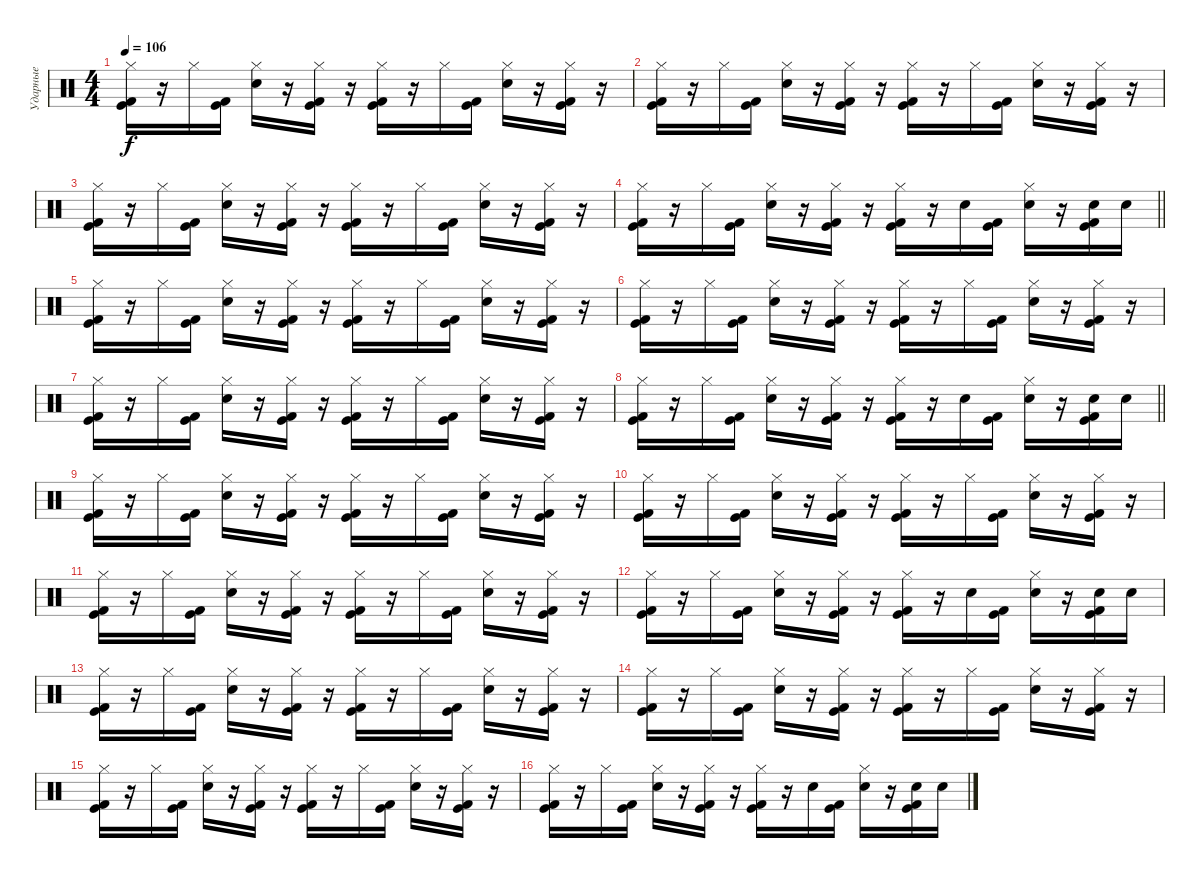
\track ("Ударные" "Ударные") {instrument percussion}
\staff {score}
\articulation defaults
\ts (4 4)
\tempo 106
\clef neutral
\ks c
("Hi-Hat (closed)" "Kick (hit) 2" "Kick (hit)").16{dy f} r.16 "Hi-Hat (closed)".16 ("Kick (hit) 2" "Kick (hit)").16 ("Hi-Hat (closed)" "Electric Snare (hit)").16 r.16 ("Hi-Hat (closed)" "Kick (hit) 2" "Kick (hit)").16 r.16 ("Hi-Hat (closed)" "Kick (hit) 2" "Kick (hit)").16 r.16 "Hi-Hat (closed)".16 ("Kick (hit) 2" "Kick (hit)").16 ("Hi-Hat (closed)" "Electric Snare (hit)").16 r.16 ("Hi-Hat (closed)" "Kick (hit) 2" "Kick (hit)").16 r.16 |
("Hi-Hat (closed)" "Kick (hit) 2" "Kick (hit)").16 r.16 "Hi-Hat (closed)".16 ("Kick (hit) 2" "Kick (hit)").16 ("Hi-Hat (closed)" "Electric Snare (hit)").16 r.16 ("Hi-Hat (closed)" "Kick (hit) 2" "Kick (hit)").16 r.16 ("Hi-Hat (closed)" "Kick (hit) 2" "Kick (hit)").16 r.16 "Hi-Hat (closed)".16 ("Kick (hit) 2" "Kick (hit)").16 ("Hi-Hat (closed)" "Electric Snare (hit)").16 r.16 ("Hi-Hat (closed)" "Kick (hit) 2" "Kick (hit)").16 r.16 |
("Hi-Hat (closed)" "Kick (hit) 2" "Kick (hit)").16 r.16 "Hi-Hat (closed)".16 ("Kick (hit) 2" "Kick (hit)").16 ("Hi-Hat (closed)" "Electric Snare (hit)").16 r.16 ("Hi-Hat (closed)" "Kick (hit) 2" "Kick (hit)").16 r.16 ("Hi-Hat (closed)" "Kick (hit) 2" "Kick (hit)").16 r.16 "Hi-Hat (closed)".16 ("Kick (hit) 2" "Kick (hit)").16 ("Hi-Hat (closed)" "Electric Snare (hit)").16 r.16 ("Hi-Hat (closed)" "Kick (hit) 2" "Kick (hit)").16 r.16 |
\barLineRight lightlight
("Hi-Hat (closed)" "Kick (hit) 2" "Kick (hit)").16 r.16 "Hi-Hat (closed)".16 ("Kick (hit) 2" "Kick (hit)").16 ("Hi-Hat (closed)" "Electric Snare (hit)").16 r.16 ("Hi-Hat (closed)" "Kick (hit) 2" "Kick (hit)").16 r.16 ("Hi-Hat (closed)" "Kick (hit) 2" "Kick (hit)").16 r.16 "Electric Snare (hit)".16 ("Kick (hit) 2" "Kick (hit)").16 ("Hi-Hat (closed)" "Electric Snare (hit)").16 r.16 ("Electric Snare (hit)" "Kick (hit) 2" "Kick (hit)").16 "Electric Snare (hit)".16 |
("Hi-Hat (closed)" "Kick (hit) 2" "Kick (hit)").16 r.16 "Hi-Hat (closed)".16 ("Kick (hit) 2" "Kick (hit)").16 ("Hi-Hat (closed)" "Electric Snare (hit)").16 r.16 ("Hi-Hat (closed)" "Kick (hit) 2" "Kick (hit)").16 r.16 ("Hi-Hat (closed)" "Kick (hit) 2" "Kick (hit)").16 r.16 "Hi-Hat (closed)".16 ("Kick (hit) 2" "Kick (hit)").16 ("Hi-Hat (closed)" "Electric Snare (hit)").16 r.16 ("Hi-Hat (closed)" "Kick (hit) 2" "Kick (hit)").16 r.16 |
("Hi-Hat (closed)" "Kick (hit) 2" "Kick (hit)").16 r.16 "Hi-Hat (closed)".16 ("Kick (hit) 2" "Kick (hit)").16 ("Hi-Hat (closed)" "Electric Snare (hit)").16 r.16 ("Hi-Hat (closed)" "Kick (hit) 2" "Kick (hit)").16 r.16 ("Hi-Hat (closed)" "Kick (hit) 2" "Kick (hit)").16 r.16 "Hi-Hat (closed)".16 ("Kick (hit) 2" "Kick (hit)").16 ("Hi-Hat (closed)" "Electric Snare (hit)").16 r.16 ("Hi-Hat (closed)" "Kick (hit) 2" "Kick (hit)").16 r.16 |
("Hi-Hat (closed)" "Kick (hit) 2" "Kick (hit)").16 r.16 "Hi-Hat (closed)".16 ("Kick (hit) 2" "Kick (hit)").16 ("Hi-Hat (closed)" "Electric Snare (hit)").16 r.16 ("Hi-Hat (closed)" "Kick (hit) 2" "Kick (hit)").16 r.16 ("Hi-Hat (closed)" "Kick (hit) 2" "Kick (hit)").16 r.16 "Hi-Hat (closed)".16 ("Kick (hit) 2" "Kick (hit)").16 ("Hi-Hat (closed)" "Electric Snare (hit)").16 r.16 ("Hi-Hat (closed)" "Kick (hit) 2" "Kick (hit)").16 r.16 |
\barLineRight lightlight
("Hi-Hat (closed)" "Kick (hit) 2" "Kick (hit)").16 r.16 "Hi-Hat (closed)".16 ("Kick (hit) 2" "Kick (hit)").16 ("Hi-Hat (closed)" "Electric Snare (hit)").16 r.16 ("Hi-Hat (closed)" "Kick (hit) 2" "Kick (hit)").16 r.16 ("Hi-Hat (closed)" "Kick (hit) 2" "Kick (hit)").16 r.16 "Electric Snare (hit)".16 ("Kick (hit) 2" "Kick (hit)").16 ("Hi-Hat (closed)" "Electric Snare (hit)").16 r.16 ("Electric Snare (hit)" "Kick (hit) 2" "Kick (hit)").16 "Electric Snare (hit)".16 |
("Hi-Hat (closed)" "Kick (hit) 2" "Kick (hit)").16 r.16 "Hi-Hat (closed)".16 ("Kick (hit) 2" "Kick (hit)").16 ("Hi-Hat (closed)" "Electric Snare (hit)").16 r.16 ("Hi-Hat (closed)" "Kick (hit) 2" "Kick (hit)").16 r.16 ("Hi-Hat (closed)" "Kick (hit) 2" "Kick (hit)").16 r.16 "Hi-Hat (closed)".16 ("Kick (hit) 2" "Kick (hit)").16 ("Hi-Hat (closed)" "Electric Snare (hit)").16 r.16 ("Hi-Hat (closed)" "Kick (hit) 2" "Kick (hit)").16 r.16 |
("Hi-Hat (closed)" "Kick (hit) 2" "Kick (hit)").16 r.16 "Hi-Hat (closed)".16 ("Kick (hit) 2" "Kick (hit)").16 ("Hi-Hat (closed)" "Electric Snare (hit)").16 r.16 ("Hi-Hat (closed)" "Kick (hit) 2" "Kick (hit)").16 r.16 ("Hi-Hat (closed)" "Kick (hit) 2" "Kick (hit)").16 r.16 "Hi-Hat (closed)".16 ("Kick (hit) 2" "Kick (hit)").16 ("Hi-Hat (closed)" "Electric Snare (hit)").16 r.16 ("Hi-Hat (closed)" "Kick (hit) 2" "Kick (hit)").16 r.16 |
("Hi-Hat (closed)" "Kick (hit) 2" "Kick (hit)").16 r.16 "Hi-Hat (closed)".16 ("Kick (hit) 2" "Kick (hit)").16 ("Hi-Hat (closed)" "Electric Snare (hit)").16 r.16 ("Hi-Hat (closed)" "Kick (hit) 2" "Kick (hit)").16 r.16 ("Hi-Hat (closed)" "Kick (hit) 2" "Kick (hit)").16 r.16 "Hi-Hat (closed)".16 ("Kick (hit) 2" "Kick (hit)").16 ("Hi-Hat (closed)" "Electric Snare (hit)").16 r.16 ("Hi-Hat (closed)" "Kick (hit) 2" "Kick (hit)").16 r.16 |
("Hi-Hat (closed)" "Kick (hit) 2" "Kick (hit)").16 r.16 "Hi-Hat (closed)".16 ("Kick (hit) 2" "Kick (hit)").16 ("Hi-Hat (closed)" "Electric Snare (hit)").16 r.16 ("Hi-Hat (closed)" "Kick (hit) 2" "Kick (hit)").16 r.16 ("Hi-Hat (closed)" "Kick (hit) 2" "Kick (hit)").16 r.16 "Electric Snare (hit)".16 ("Kick (hit) 2" "Kick (hit)").16 ("Hi-Hat (closed)" "Electric Snare (hit)").16 r.16 ("Electric Snare (hit)" "Kick (hit) 2" "Kick (hit)").16 "Electric Snare (hit)".16 |
("Hi-Hat (closed)" "Kick (hit) 2" "Kick (hit)").16 r.16 "Hi-Hat (closed)".16 ("Kick (hit) 2" "Kick (hit)").16 ("Hi-Hat (closed)" "Electric Snare (hit)").16 r.16 ("Hi-Hat (closed)" "Kick (hit) 2" "Kick (hit)").16 r.16 ("Hi-Hat (closed)" "Kick (hit) 2" "Kick (hit)").16 r.16 "Hi-Hat (closed)".16 ("Kick (hit) 2" "Kick (hit)").16 ("Hi-Hat (closed)" "Electric Snare (hit)").16 r.16 ("Hi-Hat (closed)" "Kick (hit) 2" "Kick (hit)").16 r.16 |
("Hi-Hat (closed)" "Kick (hit) 2" "Kick (hit)").16 r.16 "Hi-Hat (closed)".16 ("Kick (hit) 2" "Kick (hit)").16 ("Hi-Hat (closed)" "Electric Snare (hit)").16 r.16 ("Hi-Hat (closed)" "Kick (hit) 2" "Kick (hit)").16 r.16 ("Hi-Hat (closed)" "Kick (hit) 2" "Kick (hit)").16 r.16 "Hi-Hat (closed)".16 ("Kick (hit) 2" "Kick (hit)").16 ("Hi-Hat (closed)" "Electric Snare (hit)").16 r.16 ("Hi-Hat (closed)" "Kick (hit) 2" "Kick (hit)").16 r.16 |
("Hi-Hat (closed)" "Kick (hit) 2" "Kick (hit)").16 r.16 "Hi-Hat (closed)".16 ("Kick (hit) 2" "Kick (hit)").16 ("Hi-Hat (closed)" "Electric Snare (hit)").16 r.16 ("Hi-Hat (closed)" "Kick (hit) 2" "Kick (hit)").16 r.16 ("Hi-Hat (closed)" "Kick (hit) 2" "Kick (hit)").16 r.16 "Hi-Hat (closed)".16 ("Kick (hit) 2" "Kick (hit)").16 ("Hi-Hat (closed)" "Electric Snare (hit)").16 r.16 ("Hi-Hat (closed)" "Kick (hit) 2" "Kick (hit)").16 r.16 |
("Hi-Hat (closed)" "Kick (hit) 2" "Kick (hit)").16 r.16 "Hi-Hat (closed)".16 ("Kick (hit) 2" "Kick (hit)").16 ("Hi-Hat (closed)" "Electric Snare (hit)").16 r.16 ("Hi-Hat (closed)" "Kick (hit) 2" "Kick (hit)").16 r.16 ("Hi-Hat (closed)" "Kick (hit) 2" "Kick (hit)").16 r.16 "Electric Snare (hit)".16 ("Kick (hit) 2" "Kick (hit)").16 ("Hi-Hat (closed)" "Electric Snare (hit)").16 r.16 ("Electric Snare (hit)" "Kick (hit) 2" "Kick (hit)").16 "Electric Snare (hit)".16
